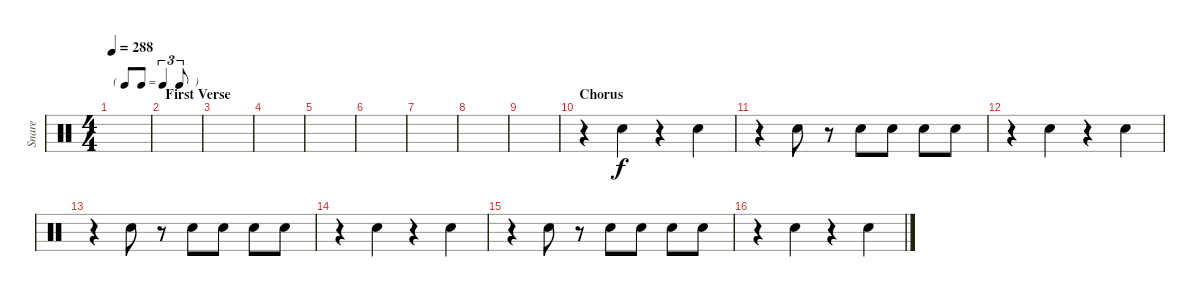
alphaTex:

\track ("Snare" "Snare") {instrument percussion}
\staff {score}
\articulation defaults
\ts (4 4)
\tf triplet8th
\tempo 288
\clef neutral
\ks c
|
\section ("" "First Verse")
|
|
|
|
|
|
|
|
\section ("" "Chorus")
r.4 "Snare (hit) 2".4 r.4 "Snare (hit) 2".4 |
r.4 "Snare (hit) 2".8 r.8 "Snare (hit) 2".8 "Snare (hit) 2".8 "Snare (hit) 2".8 "Snare (hit) 2".8 |
r.4 "Snare (hit) 2".4 r.4 "Snare (hit) 2".4 |
r.4 "Snare (hit) 2".8 r.8 "Snare (hit) 2".8 "Snare (hit) 2".8 "Snare (hit) 2".8 "Snare (hit) 2".8 |
r.4 "Snare (hit) 2".4 r.4 "Snare (hit) 2".4 |
r.4 "Snare (hit) 2".8 r.8 "Snare (hit) 2".8 "Snare (hit) 2".8 "Snare (hit) 2".8 "Snare (hit) 2".8 |
r.4 "Snare (hit) 2".4 r.4 "Snare (hit) 2".4
